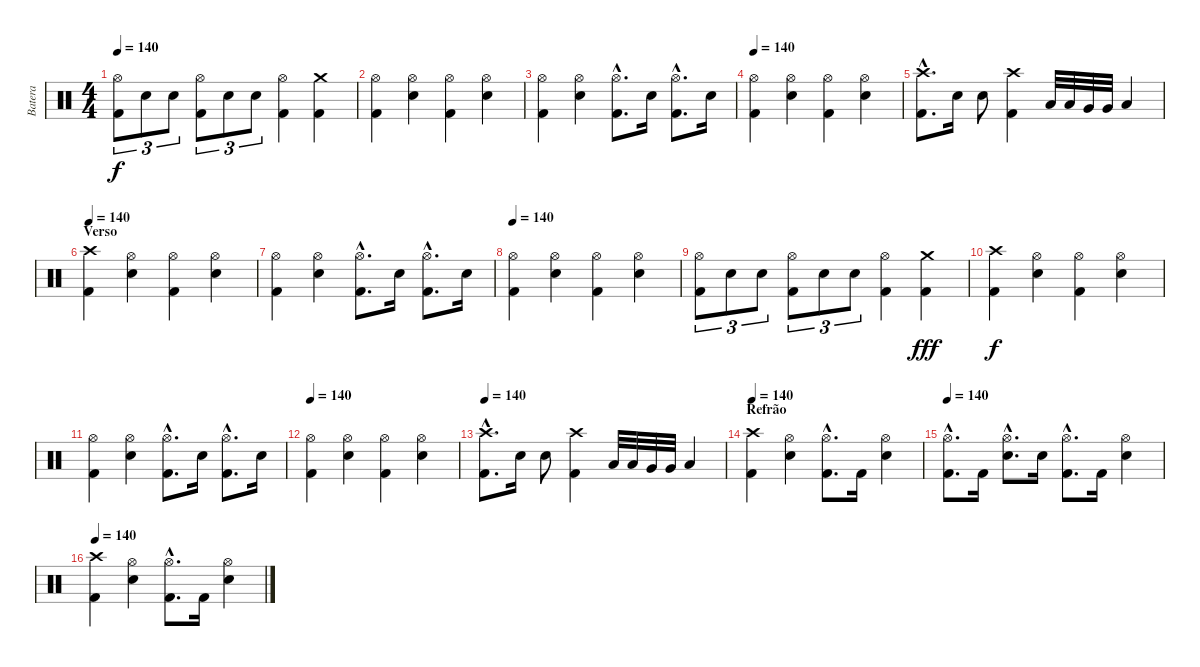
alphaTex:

\track ("Batera" "Batera") {instrument percussion}
\staff {score}
\articulation defaults
\ts (4 4)
\tempo 140
\clef neutral
\ks c
("Hi-Hat (open)" "Kick (hit) 2").8{tu (3 2) dy f} "Snare (hit) 2".8{tu (3 2)} "Snare (hit) 2".8{tu (3 2)} ("Hi-Hat (open)" "Kick (hit) 2").8{tu (3 2)} "Snare (hit) 2".8{tu (3 2)} "Snare (hit) 2".8{tu (3 2)} ("Hi-Hat (open)" "Kick (hit) 2").4 ("Crash medium (hit)" "Kick (hit) 2").4 |
("Hi-Hat (open)" "Kick (hit) 2").4 ("Hi-Hat (open)" "Snare (hit) 2").4 ("Hi-Hat (open)" "Kick (hit) 2").4 ("Hi-Hat (open)" "Snare (hit) 2").4 |
("Hi-Hat (open)" "Kick (hit) 2").4 ("Hi-Hat (open)" "Snare (hit) 2").4 ("Hi-Hat (open)"{hac} "Kick (hit) 2"{hac}).8{d} "Snare (hit) 2".16 ("Hi-Hat (open)"{hac} "Kick (hit) 2"{hac}).8{d} "Snare (hit) 2".16 |
\tempo 140
("Hi-Hat (open)" "Kick (hit) 2").4 ("Hi-Hat (open)" "Snare (hit) 2").4 ("Hi-Hat (open)" "Kick (hit) 2").4 ("Hi-Hat (open)" "Snare (hit) 2").4 |
("Crash high (hit)"{hac} "Kick (hit) 2"{hac}).8{d} "Snare (hit) 2".16 "Snare (hit) 2".8 ("Crash high (hit)" "Kick (hit) 2").4 "Low Tom (hit)".32 "Low Tom (hit)".32 "Very Low Tom (hit)".32 "Very Low Tom (hit)".32 "Low Floor Tom (hit)".4 |
\section ("" "Verso")
\tempo 140
("Crash high (hit)" "Kick (hit) 2").4 ("Hi-Hat (open)" "Snare (hit) 2").4 ("Hi-Hat (open)" "Kick (hit) 2").4 ("Hi-Hat (open)" "Snare (hit) 2").4 |
("Hi-Hat (open)" "Kick (hit) 2").4 ("Hi-Hat (open)" "Snare (hit) 2").4 ("Hi-Hat (open)"{hac} "Kick (hit) 2"{hac}).8{d} "Snare (hit) 2".16 ("Hi-Hat (open)"{hac} "Kick (hit) 2"{hac}).8{d} "Snare (hit) 2".16 |
\tempo 140
("Hi-Hat (open)" "Kick (hit) 2").4 ("Hi-Hat (open)" "Snare (hit) 2").4 ("Hi-Hat (open)" "Kick (hit) 2").4 ("Hi-Hat (open)" "Snare (hit) 2").4 |
("Hi-Hat (open)" "Kick (hit) 2").8{tu (3 2)} "Snare (hit) 2".8{tu (3 2)} "Snare (hit) 2".8{tu (3 2)} ("Hi-Hat (open)" "Kick (hit) 2").8{tu (3 2)} "Snare (hit) 2".8{tu (3 2)} "Snare (hit) 2".8{tu (3 2)} ("Hi-Hat (open)" "Kick (hit) 2").4 ("Crash medium (hit)" "Kick (hit) 2").4{dy fff} |
("Crash high (hit)" "Kick (hit) 2").4{dy f} ("Hi-Hat (open)" "Snare (hit) 2").4 ("Hi-Hat (open)" "Kick (hit) 2").4 ("Hi-Hat (open)" "Snare (hit) 2").4 |
("Hi-Hat (open)" "Kick (hit) 2").4 ("Hi-Hat (open)" "Snare (hit) 2").4 ("Hi-Hat (open)"{hac} "Kick (hit) 2"{hac}).8{d} "Snare (hit) 2".16 ("Hi-Hat (open)"{hac} "Kick (hit) 2"{hac}).8{d} "Snare (hit) 2".16 |
\tempo 140
("Hi-Hat (open)" "Kick (hit) 2").4 ("Hi-Hat (open)" "Snare (hit) 2").4 ("Hi-Hat (open)" "Kick (hit) 2").4 ("Hi-Hat (open)" "Snare (hit) 2").4 |
\tempo 140
("Crash high (hit)"{hac} "Kick (hit) 2"{hac}).8{d} "Snare (hit) 2".16 "Snare (hit) 2".8 ("Crash high (hit)" "Kick (hit) 2").4 "Low Tom (hit)".32 "Low Tom (hit)".32 "Very Low Tom (hit)".32 "Very Low Tom (hit)".32 "Low Floor Tom (hit)".4 |
\section ("" "Refrão")
\tempo 140
("Crash high (hit)" "Kick (hit) 2").4 ("Hi-Hat (open)" "Snare (hit) 2").4 ("Hi-Hat (open)"{hac} "Kick (hit) 2"{hac}).8{d} "Kick (hit) 2".16 ("Hi-Hat (open)" "Snare (hit) 2").4 |
\tempo 140
("Hi-Hat (open)"{hac} "Kick (hit) 2"{hac}).8{d} "Kick (hit) 2".16 ("Hi-Hat (open)"{hac} "Snare (hit) 2"{hac}).8{d} "Snare (hit) 2".16 ("Hi-Hat (open)"{hac} "Kick (hit) 2"{hac}).8{d} "Kick (hit) 2".16 ("Hi-Hat (open)" "Snare (hit) 2").4 |
\tempo 140
("Crash high (hit)" "Kick (hit) 2").4 ("Hi-Hat (open)" "Snare (hit) 2").4 ("Hi-Hat (open)"{hac} "Kick (hit) 2"{hac}).8{d} "Kick (hit) 2".16 ("Hi-Hat (open)" "Snare (hit) 2").4
